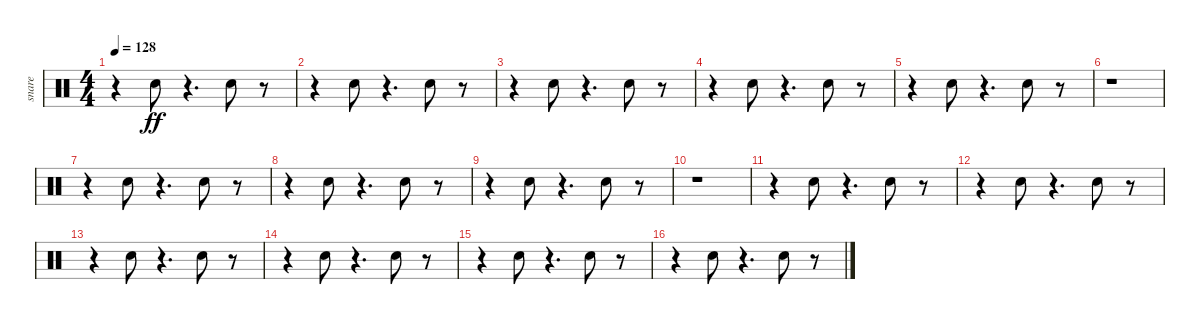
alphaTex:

\track ("snare" "snare") {instrument percussion}
\staff {score}
\articulation defaults
\ts (4 4)
\tempo 128
\clef neutral
\ks c
r.4{dy ff} "Electric Snare (hit)".8 r.4{d} "Electric Snare (hit)".8 r.8 |
r.4 "Electric Snare (hit)".8 r.4{d} "Electric Snare (hit)".8 r.8 |
r.4 "Electric Snare (hit)".8 r.4{d} "Electric Snare (hit)".8 r.8 |
r.4 "Electric Snare (hit)".8 r.4{d} "Electric Snare (hit)".8 r.8 |
r.4 "Electric Snare (hit)".8 r.4{d} "Electric Snare (hit)".8 r.8 |
r.1 |
r.4 "Electric Snare (hit)".8 r.4{d} "Electric Snare (hit)".8 r.8 |
r.4 "Electric Snare (hit)".8 r.4{d} "Electric Snare (hit)".8 r.8 |
r.4 "Electric Snare (hit)".8 r.4{d} "Electric Snare (hit)".8 r.8 |
r.1 |
r.4 "Electric Snare (hit)".8 r.4{d} "Electric Snare (hit)".8 r.8 |
r.4 "Electric Snare (hit)".8 r.4{d} "Electric Snare (hit)".8 r.8 |
r.4 "Electric Snare (hit)".8 r.4{d} "Electric Snare (hit)".8 r.8 |
r.4 "Electric Snare (hit)".8 r.4{d} "Electric Snare (hit)".8 r.8 |
r.4 "Electric Snare (hit)".8 r.4{d} "Electric Snare (hit)".8 r.8 |
r.4 "Electric Snare (hit)".8 r.4{d} "Electric Snare (hit)".8 r.8
